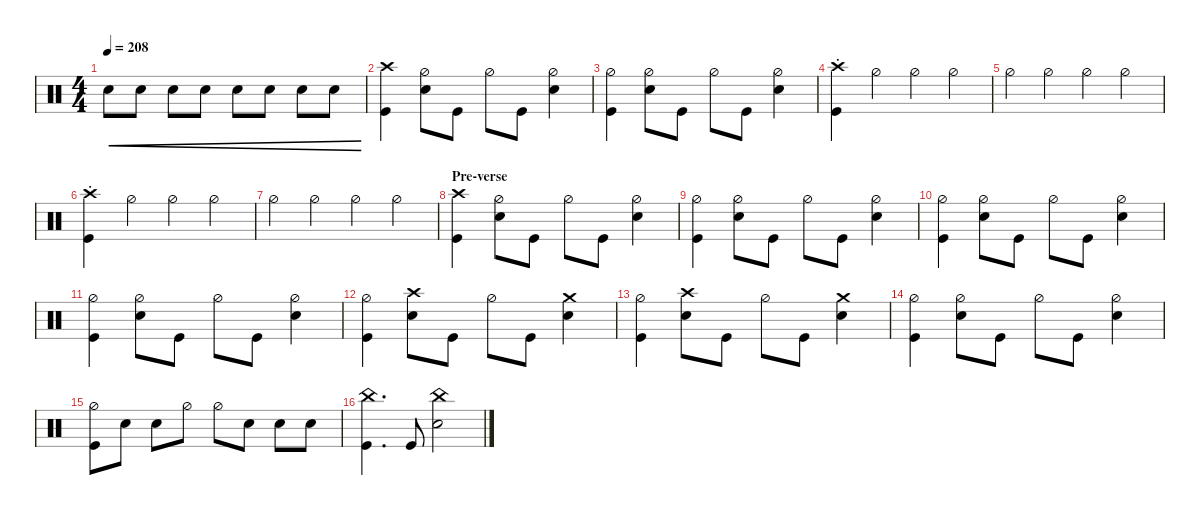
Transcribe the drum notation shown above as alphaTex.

\defaultSystemsLayout 4
\hideDynamics
\bracketExtendMode nobrackets
\singleTrackTrackNamePolicy hidden
\multiTrackTrackNamePolicy hidden
\otherSystemsTrackNameOrientation horizontal
\track ("Drums" "drm.") {multiBarRest instrument percussion}
\staff {score}
\articulation defaults
\ts (4 4)
\tempo 208
\clef neutral
\ks c "Snare (hit) 2".8{cre dy f beam Down} "Snare (hit) 2".8{cre beam Down} "Snare (hit) 2".8{cre beam Down} "Snare (hit) 2".8{cre beam Down} "Snare (hit) 2".8{cre beam Down} "Snare (hit) 2".8{cre beam Down} "Snare (hit) 2".8{cre beam Down} "Snare (hit) 2".8{cre beam Down}
|
("Crash high (hit)" "Kick (hit)").4{beam Down} ("Snare (hit) 2" "Hi-Hat (half)").8{beam Down} "Kick (hit)".8{beam Down} "Hi-Hat (half)".8{beam Down} "Kick (hit)".8{beam Down} ("Snare (hit) 2" "Hi-Hat (half)").4{beam Down} |
("Kick (hit)" "Hi-Hat (half)").4{beam Down} ("Snare (hit) 2" "Hi-Hat (half)").8{beam Down} "Kick (hit)".8{beam Down} "Hi-Hat (half)".8{beam Down} "Kick (hit)".8{beam Down} ("Snare (hit) 2" "Hi-Hat (half)").4{beam Down} |
("Kick (hit)" "Crash high (hit)"{st}).4{beam Down} "Hi-Hat (half)".4{beam Down} "Hi-Hat (half)".4{beam Down} "Hi-Hat (half)".4{beam Down} |
"Hi-Hat (half)".4{beam Down} "Hi-Hat (half)".4{beam Down} "Hi-Hat (half)".4{beam Down} "Hi-Hat (half)".4{beam Down} |
("Kick (hit)" "Crash high (hit)"{st}).4{beam Down} "Hi-Hat (half)".4{beam Down} "Hi-Hat (half)".4{beam Down} "Hi-Hat (half)".4{beam Down} |
"Hi-Hat (half)".4{beam Down} "Hi-Hat (half)".4{beam Down} "Hi-Hat (half)".4{beam Down} "Hi-Hat (half)".4{beam Down} |
\section ("" "Pre-verse")
("Crash high (hit)" "Kick (hit)").4{beam Down} ("Snare (hit) 2" "Hi-Hat (half)").8{beam Down} "Kick (hit)".8{beam Down} "Hi-Hat (half)".8{beam Down} "Kick (hit)".8{beam Down} ("Snare (hit) 2" "Hi-Hat (half)").4{beam Down} |
("Kick (hit)" "Hi-Hat (half)").4{beam Down} ("Snare (hit) 2" "Hi-Hat (half)").8{beam Down} "Kick (hit)".8{beam Down} "Hi-Hat (half)".8{beam Down} "Kick (hit)".8{beam Down} ("Snare (hit) 2" "Hi-Hat (half)").4{beam Down} |
("Kick (hit)" "Hi-Hat (half)").4{beam Down} ("Snare (hit) 2" "Hi-Hat (half)").8{beam Down} "Kick (hit)".8{beam Down} "Hi-Hat (half)".8{beam Down} "Kick (hit)".8{beam Down} ("Snare (hit) 2" "Hi-Hat (half)").4{beam Down} |
("Kick (hit)" "Hi-Hat (half)").4{beam Down} ("Snare (hit) 2" "Hi-Hat (half)").8{beam Down} "Kick (hit)".8{beam Down} "Hi-Hat (half)".8{beam Down} "Kick (hit)".8{beam Down} ("Snare (hit) 2" "Hi-Hat (half)").4{beam Down} |
("Kick (hit)" "Hi-Hat (half)").4{beam Down} ("Snare (hit) 2" "Crash high (hit)").8{beam Down} "Kick (hit)".8{beam Down} "Hi-Hat (half)".8{beam Down} "Kick (hit)".8{beam Down} ("Snare (hit) 2" "Crash medium (hit)").4{beam Down} |
("Kick (hit)" "Hi-Hat (half)").4{beam Down} ("Snare (hit) 2" "Crash high (hit)").8{beam Down} "Kick (hit)".8{beam Down} "Hi-Hat (half)".8{beam Down} "Kick (hit)".8{beam Down} ("Snare (hit) 2" "Crash medium (hit)").4{beam Down} |
("Kick (hit)" "Hi-Hat (half)").4{beam Down} ("Snare (hit) 2" "Hi-Hat (half)").8{beam Down} "Kick (hit)".8{beam Down} "Hi-Hat (half)".8{beam Down} "Kick (hit)".8{beam Down} ("Snare (hit) 2" "Hi-Hat (half)").4{beam Down} |
("Hi-Hat (half)" "Kick (hit)").8{beam Down} "Snare (hit) 2".8{beam Down} "Snare (hit) 2".8{beam Down} "Hi-Hat (half)".8{beam Down} "Hi-Hat (half)".8{beam Down} "Snare (hit) 2".8{beam Down} "Snare (hit) 2".8{beam Down} "Snare (hit) 2".8{beam Down} |
("China (hit)" "Kick (hit)").4{d beam Down} "Kick (hit)".8{beam Up} ("Snare (hit) 2" "China (hit)").2{beam Down}
